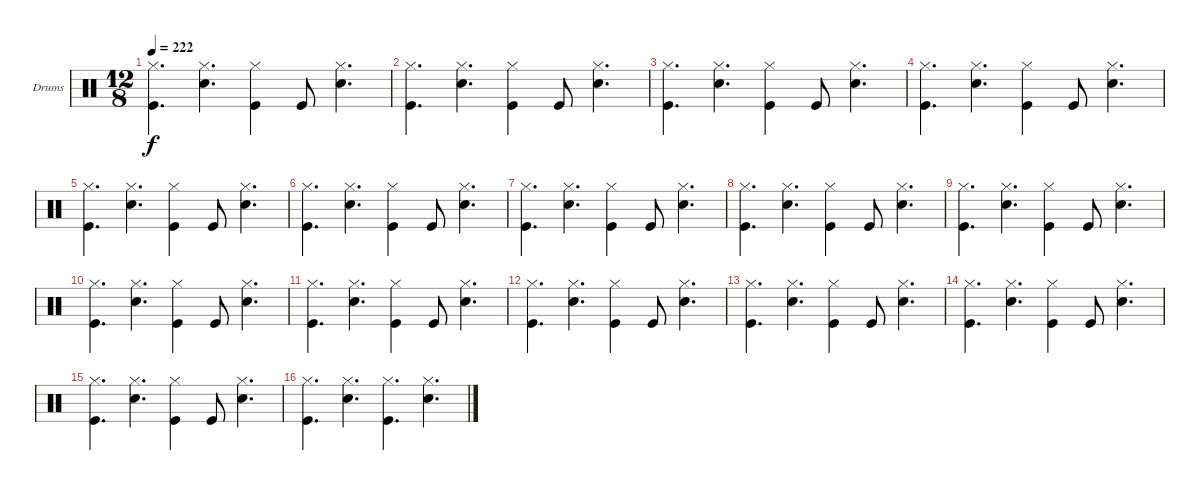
\bracketExtendMode nobrackets
\firstSystemTrackNameOrientation horizontal
\otherSystemsTrackNameOrientation horizontal
\track ("Drumkit" "Drums") {instrument percussion}
\staff {score}
\articulation defaults
\ts (12 8)
\tempo 222
\clef neutral
\ks c
("Hi-Hat (closed)" "Kick (hit)").4{d dy f} ("Hi-Hat (closed)" "Snare (hit) 2").4{d} ("Hi-Hat (closed)" "Kick (hit)").4 "Kick (hit)".8 ("Hi-Hat (closed)" "Snare (hit) 2").4{d} |
("Hi-Hat (closed)" "Kick (hit)").4{d} ("Hi-Hat (closed)" "Snare (hit) 2").4{d} ("Hi-Hat (closed)" "Kick (hit)").4 "Kick (hit)".8 ("Hi-Hat (closed)" "Snare (hit) 2").4{d} |
("Hi-Hat (closed)" "Kick (hit)").4{d} ("Hi-Hat (closed)" "Snare (hit) 2").4{d} ("Hi-Hat (closed)" "Kick (hit)").4 "Kick (hit)".8 ("Hi-Hat (closed)" "Snare (hit) 2").4{d} |
("Hi-Hat (closed)" "Kick (hit)").4{d} ("Hi-Hat (closed)" "Snare (hit) 2").4{d} ("Hi-Hat (closed)" "Kick (hit)").4 "Kick (hit)".8 ("Hi-Hat (closed)" "Snare (hit) 2").4{d} |
("Hi-Hat (closed)" "Kick (hit)").4{d} ("Hi-Hat (closed)" "Snare (hit) 2").4{d} ("Hi-Hat (closed)" "Kick (hit)").4 "Kick (hit)".8 ("Hi-Hat (closed)" "Snare (hit) 2").4{d} |
("Hi-Hat (closed)" "Kick (hit)").4{d} ("Hi-Hat (closed)" "Snare (hit) 2").4{d} ("Hi-Hat (closed)" "Kick (hit)").4 "Kick (hit)".8 ("Hi-Hat (closed)" "Snare (hit) 2").4{d} |
("Hi-Hat (closed)" "Kick (hit)").4{d} ("Hi-Hat (closed)" "Snare (hit) 2").4{d} ("Hi-Hat (closed)" "Kick (hit)").4 "Kick (hit)".8 ("Hi-Hat (closed)" "Snare (hit) 2").4{d} |
("Hi-Hat (closed)" "Kick (hit)").4{d} ("Hi-Hat (closed)" "Snare (hit) 2").4{d} ("Hi-Hat (closed)" "Kick (hit)").4 "Kick (hit)".8 ("Hi-Hat (closed)" "Snare (hit) 2").4{d} |
("Hi-Hat (closed)" "Kick (hit)").4{d} ("Hi-Hat (closed)" "Snare (hit) 2").4{d} ("Hi-Hat (closed)" "Kick (hit)").4 "Kick (hit)".8 ("Hi-Hat (closed)" "Snare (hit) 2").4{d} |
("Hi-Hat (closed)" "Kick (hit)").4{d} ("Hi-Hat (closed)" "Snare (hit) 2").4{d} ("Hi-Hat (closed)" "Kick (hit)").4 "Kick (hit)".8 ("Hi-Hat (closed)" "Snare (hit) 2").4{d} |
("Hi-Hat (closed)" "Kick (hit)").4{d} ("Hi-Hat (closed)" "Snare (hit) 2").4{d} ("Hi-Hat (closed)" "Kick (hit)").4 "Kick (hit)".8 ("Hi-Hat (closed)" "Snare (hit) 2").4{d} |
("Hi-Hat (closed)" "Kick (hit)").4{d} ("Hi-Hat (closed)" "Snare (hit) 2").4{d} ("Hi-Hat (closed)" "Kick (hit)").4 "Kick (hit)".8 ("Hi-Hat (closed)" "Snare (hit) 2").4{d} |
("Hi-Hat (closed)" "Kick (hit)").4{d} ("Hi-Hat (closed)" "Snare (hit) 2").4{d} ("Hi-Hat (closed)" "Kick (hit)").4 "Kick (hit)".8 ("Hi-Hat (closed)" "Snare (hit) 2").4{d} |
("Hi-Hat (closed)" "Kick (hit)").4{d} ("Hi-Hat (closed)" "Snare (hit) 2").4{d} ("Hi-Hat (closed)" "Kick (hit)").4 "Kick (hit)".8 ("Hi-Hat (closed)" "Snare (hit) 2").4{d} |
("Hi-Hat (closed)" "Kick (hit)").4{d} ("Hi-Hat (closed)" "Snare (hit) 2").4{d} ("Hi-Hat (closed)" "Kick (hit)").4 "Kick (hit)".8 ("Hi-Hat (closed)" "Snare (hit) 2").4{d} |
("Hi-Hat (closed)" "Kick (hit)").4{d} ("Hi-Hat (closed)" "Snare (hit) 2").4{d} ("Hi-Hat (closed)" "Kick (hit)").4{d} ("Hi-Hat (closed)" "Snare (hit) 2").4{d}
